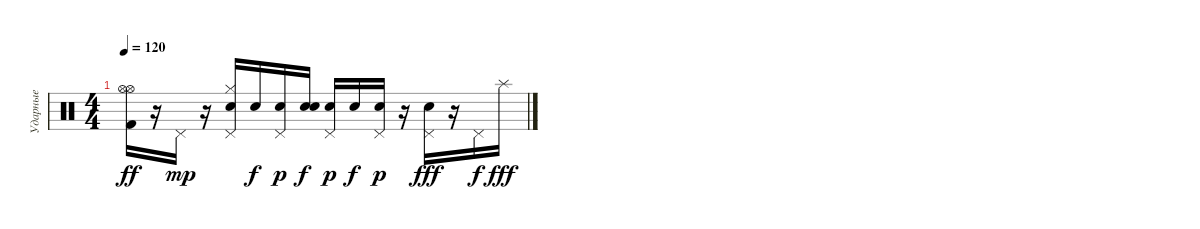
\track ("Ударные" "Ударные") {instrument percussion}
\staff {score}
\articulation defaults
\ts (4 4)
\tempo 120
\clef neutral
\ks c
("Hi-Hat (open)" "Kick (hit) 2" "Hi-Hat (open)").16{dy ff} r.16 "Pedal Hi-Hat (hit)".16{dy mp} r.16 ("Pedal Hi-Hat (hit)" "Hi-Hat (closed)" "Snare (hit) 2").16 "Snare (hit) 2".16{dy f} ("Pedal Hi-Hat (hit)" "Snare (hit) 2").16{dy p} ("Snare (hit) 2" "Snare (hit) 2").16{dy f} ("Pedal Hi-Hat (hit)" "Snare (hit) 2").16{dy p} "Snare (hit) 2".16{dy f} ("Pedal Hi-Hat (hit)" "Snare (hit) 2").16{dy p} r.16 ("Pedal Hi-Hat (hit)" "Snare (hit) 2").16{dy fff} r.16 "Pedal Hi-Hat (hit)".16{dy f} "Splash (hit)".16{dy fff}
